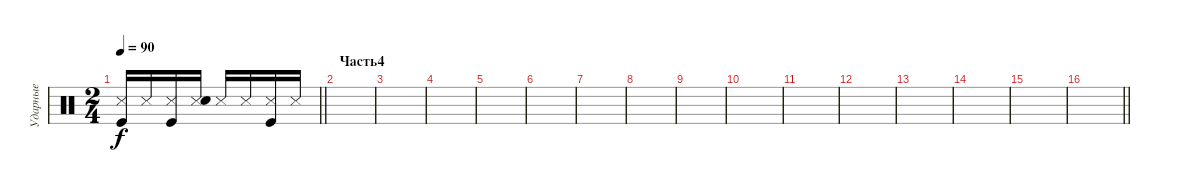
\track ("Ударные" "Ударные") {instrument percussion}
\staff {score}
\articulation defaults
\ts (2 4)
\tempo 90
\clef neutral
\barLineRight lightlight
\ks c
("Snare (side stick) 3" "Kick (hit)").16{dy f} "Snare (side stick) 3".16 ("Snare (side stick) 3" "Kick (hit)").16 ("Snare (side stick) 3" "Snare (hit) 2").16 "Snare (side stick) 3".16 "Snare (side stick) 3".16 ("Snare (side stick) 3" "Kick (hit)").16 "Snare (side stick) 3".16 |
\section ("" "Часть4")
|
|
|
|
|
|
|
|
|
|
|
|
|
|
\barLineRight lightlight
